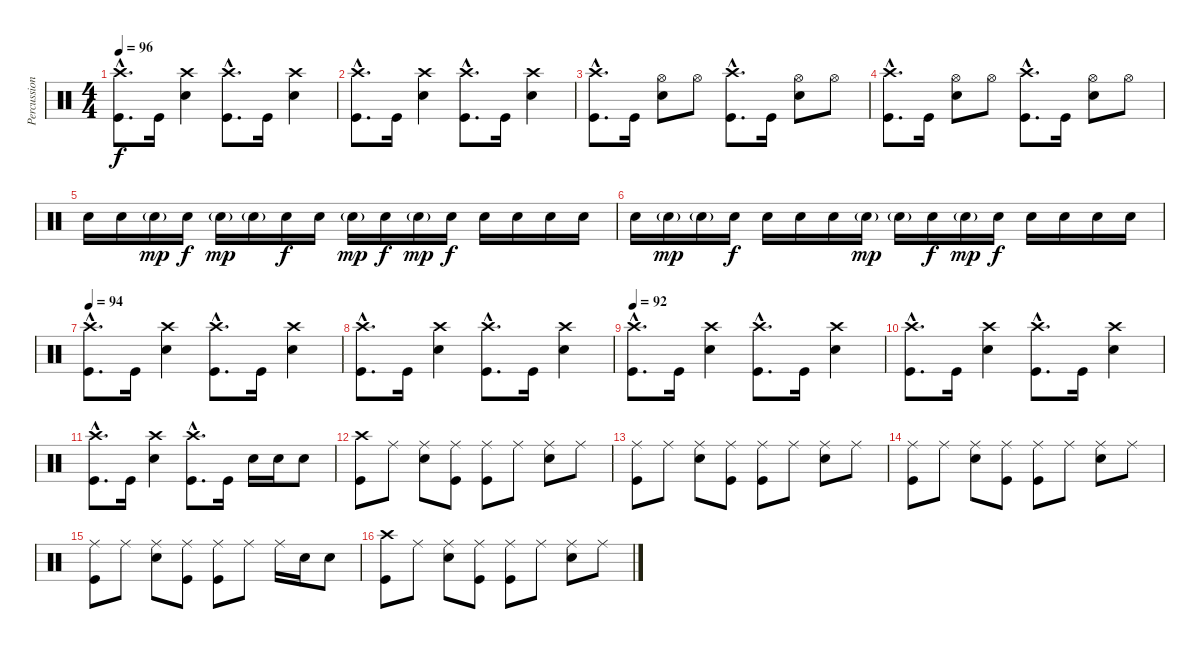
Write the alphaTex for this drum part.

\track ("Percussion" "Percussion") {instrument percussion}
\staff {score}
\articulation defaults
\ts (4 4)
\tempo 96
\clef neutral
\ks c
("Crash high (hit)"{hac} "Kick (hit)"{hac}).8{d dy f} "Kick (hit)".16 ("Crash high (hit)" "Snare (hit) 2").4 ("Crash high (hit)"{hac} "Kick (hit)"{hac}).8{d} "Kick (hit)".16 ("Crash high (hit)" "Snare (hit) 2").4 |
("Crash high (hit)"{hac} "Kick (hit)"{hac}).8{d} "Kick (hit)".16 ("Crash high (hit)" "Snare (hit) 2").4 ("Crash high (hit)"{hac} "Kick (hit)"{hac}).8{d} "Kick (hit)".16 ("Crash high (hit)" "Snare (hit) 2").4 |
("Crash high (hit)"{hac} "Kick (hit)"{hac}).8{d} "Kick (hit)".16 ("Hi-Hat (open)" "Snare (hit) 2").8 "Hi-Hat (open)".8 ("Crash high (hit)"{hac} "Kick (hit)"{hac}).8{d} "Kick (hit)".16 ("Hi-Hat (open)" "Snare (hit) 2").8 "Hi-Hat (open)".8 |
("Crash high (hit)"{hac} "Kick (hit)"{hac}).8{d} "Kick (hit)".16 ("Hi-Hat (open)" "Snare (hit) 2").8 "Hi-Hat (open)".8 ("Crash high (hit)"{hac} "Kick (hit)"{hac}).8{d} "Kick (hit)".16 ("Hi-Hat (open)" "Snare (hit) 2").8 "Hi-Hat (open)".8 |
"Snare (hit) 2".16 "Snare (hit) 2".16 "Snare (hit) 2"{g}.16{dy mp} "Snare (hit) 2".16{dy f} "Snare (hit) 2"{g}.16{dy mp} "Snare (hit) 2"{g}.16 "Snare (hit) 2".16{dy f} "Snare (hit) 2".16 "Snare (hit) 2"{g}.16{dy mp} "Snare (hit) 2".16{dy f} "Snare (hit) 2"{g}.16{dy mp} "Snare (hit) 2".16{dy f} "Snare (hit) 2".16 "Snare (hit) 2".16 "Snare (hit) 2".16 "Snare (hit) 2".16 |
"Snare (hit) 2".16 "Snare (hit) 2"{g}.16{dy mp} "Snare (hit) 2"{g}.16 "Snare (hit) 2".16{dy f} "Snare (hit) 2".16 "Snare (hit) 2".16 "Snare (hit) 2".16 "Snare (hit) 2"{g}.16{dy mp} "Snare (hit) 2"{g}.16 "Snare (hit) 2".16{dy f} "Snare (hit) 2"{g}.16{dy mp} "Snare (hit) 2".16{dy f} "Snare (hit) 2".16 "Snare (hit) 2".16 "Snare (hit) 2".16 "Snare (hit) 2".16 |
\tempo 94
("Crash high (hit)"{hac} "Kick (hit)"{hac}).8{d volume 6} "Kick (hit)".16 ("Crash high (hit)" "Snare (hit) 2").4 ("Crash high (hit)"{hac} "Kick (hit)"{hac}).8{d} "Kick (hit)".16 ("Crash high (hit)" "Snare (hit) 2").4 |
("Crash high (hit)"{hac} "Kick (hit)"{hac}).8{d} "Kick (hit)".16 ("Crash high (hit)" "Snare (hit) 2").4 ("Crash high (hit)"{hac} "Kick (hit)"{hac}).8{d} "Kick (hit)".16 ("Crash high (hit)" "Snare (hit) 2").4 |
\tempo 92
("Crash high (hit)"{hac} "Kick (hit)"{hac}).8{d volume 3} "Kick (hit)".16 ("Crash high (hit)" "Snare (hit) 2").4 ("Crash high (hit)"{hac} "Kick (hit)"{hac}).8{d} "Kick (hit)".16 ("Crash high (hit)" "Snare (hit) 2").4 |
("Crash high (hit)"{hac} "Kick (hit)"{hac}).8{d} "Kick (hit)".16 ("Crash high (hit)" "Snare (hit) 2").4 ("Crash high (hit)"{hac} "Kick (hit)"{hac}).8{d} "Kick (hit)".16 ("Crash high (hit)" "Snare (hit) 2").4 |
("Crash high (hit)"{hac} "Kick (hit)"{hac}).8{d} "Kick (hit)".16 ("Crash high (hit)" "Snare (hit) 2").4 ("Crash high (hit)"{hac} "Kick (hit)"{hac}).8{d} "Kick (hit)".16 "Snare (hit) 2".16 "Snare (hit) 2".16 "Snare (hit) 2".8 |
("Crash high (hit)" "Kick (hit)").8{volume 10} "Ride (middle)".8 ("Ride (middle)" "Snare (hit) 2").8 ("Ride (middle)" "Kick (hit)").8 ("Ride (middle)" "Kick (hit)").8 "Ride (middle)".8 ("Ride (middle)" "Snare (hit) 2").8 "Ride (middle)".8 |
("Ride (middle)" "Kick (hit)").8 "Ride (middle)".8 ("Ride (middle)" "Snare (hit) 2").8 ("Ride (middle)" "Kick (hit)").8 ("Ride (middle)" "Kick (hit)").8 "Ride (middle)".8 ("Ride (middle)" "Snare (hit) 2").8 "Ride (middle)".8 |
("Ride (middle)" "Kick (hit)").8 "Ride (middle)".8 ("Ride (middle)" "Snare (hit) 2").8 ("Ride (middle)" "Kick (hit)").8 ("Ride (middle)" "Kick (hit)").8 "Ride (middle)".8 ("Ride (middle)" "Snare (hit) 2").8 "Ride (middle)".8 |
("Ride (middle)" "Kick (hit)").8 "Ride (middle)".8 ("Ride (middle)" "Snare (hit) 2").8 ("Ride (middle)" "Kick (hit)").8 ("Ride (middle)" "Kick (hit)").8 "Ride (middle)".8 "Ride (middle)".16 "Snare (hit) 2".16 "Snare (hit) 2".8 |
("Crash high (hit)" "Kick (hit)").8 "Ride (middle)".8 ("Ride (middle)" "Snare (hit) 2").8 ("Ride (middle)" "Kick (hit)").8 ("Ride (middle)" "Kick (hit)").8 "Ride (middle)".8 ("Ride (middle)" "Snare (hit) 2").8 "Ride (middle)".8
